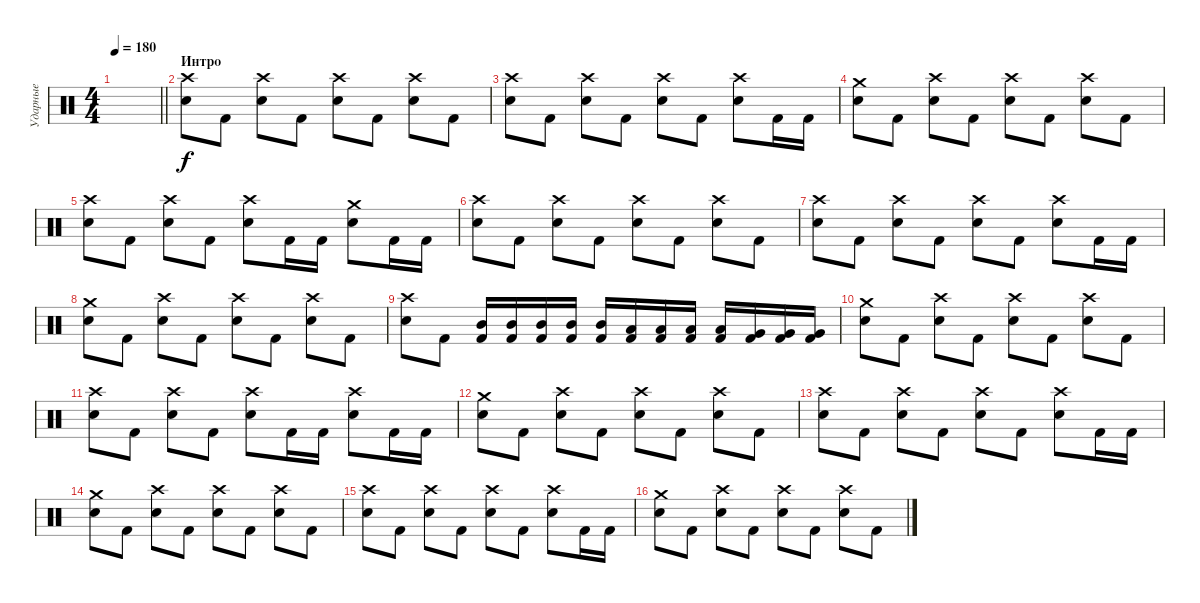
\track ("Ударные" "Ударные") {instrument percussion}
\staff {score}
\articulation defaults
\ts (4 4)
\tempo 180
\clef neutral
\barLineRight lightlight
\ks c
|
\section ("" "Интро")
("Crash high (hit)" "Snare (hit) 2").8 "Kick (hit) 2".8 ("Crash high (hit)" "Snare (hit) 2").8 "Kick (hit) 2".8 ("Crash high (hit)" "Snare (hit) 2").8 "Kick (hit) 2".8 ("Crash high (hit)" "Snare (hit) 2").8 "Kick (hit) 2".8 |
("Crash high (hit)" "Snare (hit) 2").8 "Kick (hit) 2".8 ("Crash high (hit)" "Snare (hit) 2").8 "Kick (hit) 2".8 ("Crash high (hit)" "Snare (hit) 2").8 "Kick (hit) 2".8 ("Crash high (hit)" "Snare (hit) 2").8 "Kick (hit) 2".16 "Kick (hit) 2".16 |
("Crash medium (hit)" "Snare (hit) 2").8 "Kick (hit) 2".8 ("Crash high (hit)" "Snare (hit) 2").8 "Kick (hit) 2".8 ("Crash high (hit)" "Snare (hit) 2").8 "Kick (hit) 2".8 ("Crash high (hit)" "Snare (hit) 2").8 "Kick (hit) 2".8 |
("Crash high (hit)" "Snare (hit) 2").8 "Kick (hit) 2".8 ("Crash high (hit)" "Snare (hit) 2").8 "Kick (hit) 2".8 ("Crash high (hit)" "Snare (hit) 2").8 "Kick (hit) 2".16 "Kick (hit) 2".16 ("Crash medium (hit)" "Snare (hit) 2").8 "Kick (hit) 2".16 "Kick (hit) 2".16 |
("Crash high (hit)" "Snare (hit) 2").8 "Kick (hit) 2".8 ("Crash high (hit)" "Snare (hit) 2").8 "Kick (hit) 2".8 ("Crash high (hit)" "Snare (hit) 2").8 "Kick (hit) 2".8 ("Crash high (hit)" "Snare (hit) 2").8 "Kick (hit) 2".8 |
("Crash high (hit)" "Snare (hit) 2").8 "Kick (hit) 2".8 ("Crash high (hit)" "Snare (hit) 2").8 "Kick (hit) 2".8 ("Crash high (hit)" "Snare (hit) 2").8 "Kick (hit) 2".8 ("Crash high (hit)" "Snare (hit) 2").8 "Kick (hit) 2".16 "Kick (hit) 2".16 |
("Crash medium (hit)" "Snare (hit) 2").8 "Kick (hit) 2".8 ("Crash high (hit)" "Snare (hit) 2").8 "Kick (hit) 2".8 ("Crash high (hit)" "Snare (hit) 2").8 "Kick (hit) 2".8 ("Crash high (hit)" "Snare (hit) 2").8 "Kick (hit) 2".8 |
("Crash high (hit)" "Snare (hit) 2").8 "Kick (hit) 2".8 ("Mid Tom (hit)" "Kick (hit) 2").16 ("Mid Tom (hit)" "Kick (hit) 2").16 ("Mid Tom (hit)" "Kick (hit) 2").16 ("Mid Tom (hit)" "Kick (hit) 2").16 ("Mid Tom (hit)" "Kick (hit) 2").16 ("Low Tom (hit)" "Kick (hit) 2").16 ("Low Tom (hit)" "Kick (hit) 2").16 ("Low Tom (hit)" "Kick (hit) 2").16 ("Low Tom (hit)" "Kick (hit) 2").16 ("Very Low Tom (hit)" "Kick (hit) 2").16 ("Very Low Tom (hit)" "Kick (hit) 2").16 ("Very Low Tom (hit)" "Kick (hit) 2").16 |
("Crash medium (hit)" "Snare (hit) 2").8 "Kick (hit) 2".8 ("Crash high (hit)" "Snare (hit) 2").8 "Kick (hit) 2".8 ("Crash high (hit)" "Snare (hit) 2").8 "Kick (hit) 2".8 ("Crash high (hit)" "Snare (hit) 2").8 "Kick (hit) 2".8 |
("Crash high (hit)" "Snare (hit) 2").8 "Kick (hit) 2".8 ("Crash high (hit)" "Snare (hit) 2").8 "Kick (hit) 2".8 ("Crash high (hit)" "Snare (hit) 2").8 "Kick (hit) 2".16 "Kick (hit) 2".16 ("Crash high (hit)" "Snare (hit) 2").8 "Kick (hit) 2".16 "Kick (hit) 2".16 |
("Crash medium (hit)" "Snare (hit) 2").8 "Kick (hit) 2".8 ("Crash high (hit)" "Snare (hit) 2").8 "Kick (hit) 2".8 ("Crash high (hit)" "Snare (hit) 2").8 "Kick (hit) 2".8 ("Crash high (hit)" "Snare (hit) 2").8 "Kick (hit) 2".8 |
("Crash high (hit)" "Snare (hit) 2").8 "Kick (hit) 2".8 ("Crash high (hit)" "Snare (hit) 2").8 "Kick (hit) 2".8 ("Crash high (hit)" "Snare (hit) 2").8 "Kick (hit) 2".8 ("Crash high (hit)" "Snare (hit) 2").8 "Kick (hit) 2".16 "Kick (hit) 2".16 |
("Crash medium (hit)" "Snare (hit) 2").8 "Kick (hit) 2".8 ("Crash high (hit)" "Snare (hit) 2").8 "Kick (hit) 2".8 ("Crash high (hit)" "Snare (hit) 2").8 "Kick (hit) 2".8 ("Crash high (hit)" "Snare (hit) 2").8 "Kick (hit) 2".8 |
("Crash high (hit)" "Snare (hit) 2").8 "Kick (hit) 2".8 ("Crash high (hit)" "Snare (hit) 2").8 "Kick (hit) 2".8 ("Crash high (hit)" "Snare (hit) 2").8 "Kick (hit) 2".8 ("Crash high (hit)" "Snare (hit) 2").8 "Kick (hit) 2".16 "Kick (hit) 2".16 |
("Crash medium (hit)" "Snare (hit) 2").8 "Kick (hit) 2".8 ("Crash high (hit)" "Snare (hit) 2").8 "Kick (hit) 2".8 ("Crash high (hit)" "Snare (hit) 2").8 "Kick (hit) 2".8 ("Crash high (hit)" "Snare (hit) 2").8 "Kick (hit) 2".8
